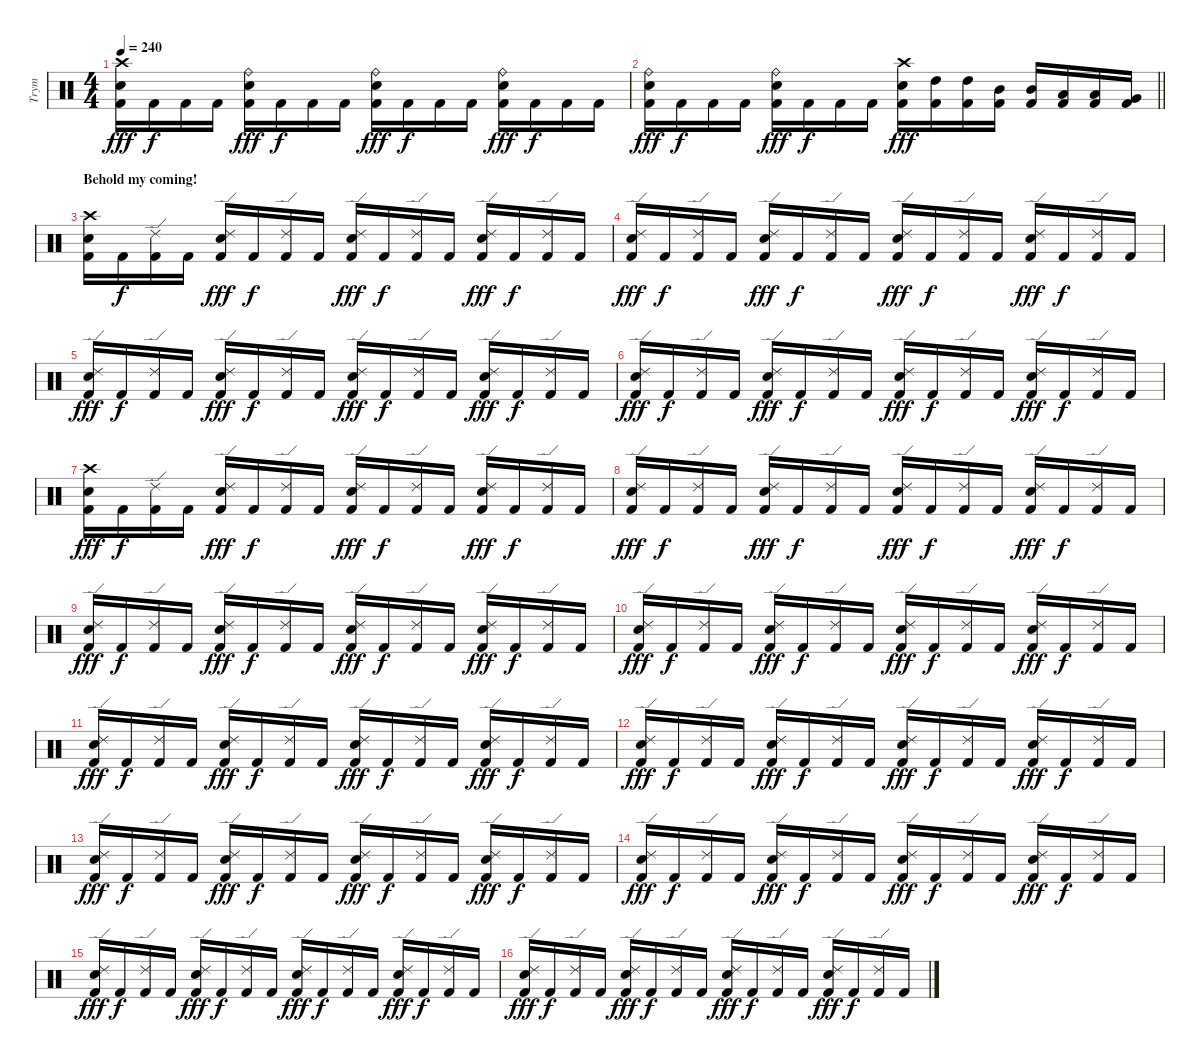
\track ("Trym" "Trym") {instrument percussion}
\staff {score}
\articulation defaults
\ts (4 4)
\tempo 240
\clef neutral
\ks c
("Crash high (hit)" "Electric Snare (hit)" "Kick (hit) 2").16{dy fff} "Kick (hit) 2".16{dy f} "Kick (hit) 2".16 "Kick (hit) 2".16 ("Ride (bell)" "Electric Snare (hit)" "Kick (hit) 2").16{dy fff} "Kick (hit) 2".16{dy f} "Kick (hit) 2".16 "Kick (hit) 2".16 ("Ride (bell)" "Electric Snare (hit)" "Kick (hit) 2").16{dy fff} "Kick (hit) 2".16{dy f} "Kick (hit) 2".16 "Kick (hit) 2".16 ("Ride (bell)" "Electric Snare (hit)" "Kick (hit) 2").16{dy fff} "Kick (hit) 2".16{dy f} "Kick (hit) 2".16 "Kick (hit) 2".16 |
\barLineRight lightlight
("Ride (bell)" "Electric Snare (hit)" "Kick (hit) 2").16{dy fff} "Kick (hit) 2".16{dy f} "Kick (hit) 2".16 "Kick (hit) 2".16 ("Ride (bell)" "Electric Snare (hit)" "Kick (hit) 2").16{dy fff} "Kick (hit) 2".16{dy f} "Kick (hit) 2".16 "Kick (hit) 2".16 ("Crash high (hit)" "Electric Snare (hit)" "Kick (hit) 2").16{dy fff} ("High Tom (hit)" "Kick (hit) 2").16 ("High Tom (hit)" "Kick (hit) 2").16 ("Mid Tom (hit)" "Kick (hit) 2").16 ("Mid Tom (hit)" "Kick (hit) 2").16 ("Low Tom (hit)" "Kick (hit) 2").16 ("Low Tom (hit)" "Kick (hit) 2").16 ("Very Low Tom (hit)" "Kick (hit) 2").16 |
\section ("" "Behold my coming!")
("Crash high (hit)" "Electric Snare (hit)" "Kick (hit) 2").16 "Kick (hit) 2".16{dy f} ("Ride (edge) 2" "Kick (hit) 2").16 "Kick (hit) 2".16 ("Ride (edge) 2" "Electric Snare (hit)" "Kick (hit) 2").16{dy fff} "Kick (hit) 2".16{dy f} ("Ride (edge) 2" "Kick (hit) 2").16 "Kick (hit) 2".16 ("Ride (edge) 2" "Electric Snare (hit)" "Kick (hit) 2").16{dy fff} "Kick (hit) 2".16{dy f} ("Ride (edge) 2" "Kick (hit) 2").16 "Kick (hit) 2".16 ("Ride (edge) 2" "Electric Snare (hit)" "Kick (hit) 2").16{dy fff} "Kick (hit) 2".16{dy f} ("Ride (edge) 2" "Kick (hit) 2").16 "Kick (hit) 2".16 |
("Ride (edge) 2" "Electric Snare (hit)" "Kick (hit) 2").16{dy fff} "Kick (hit) 2".16{dy f} ("Ride (edge) 2" "Kick (hit) 2").16 "Kick (hit) 2".16 ("Ride (edge) 2" "Electric Snare (hit)" "Kick (hit) 2").16{dy fff} "Kick (hit) 2".16{dy f} ("Ride (edge) 2" "Kick (hit) 2").16 "Kick (hit) 2".16 ("Ride (edge) 2" "Electric Snare (hit)" "Kick (hit) 2").16{dy fff} "Kick (hit) 2".16{dy f} ("Ride (edge) 2" "Kick (hit) 2").16 "Kick (hit) 2".16 ("Ride (edge) 2" "Electric Snare (hit)" "Kick (hit) 2").16{dy fff} "Kick (hit) 2".16{dy f} ("Ride (edge) 2" "Kick (hit) 2").16 "Kick (hit) 2".16 |
("Ride (edge) 2" "Electric Snare (hit)" "Kick (hit) 2").16{dy fff} "Kick (hit) 2".16{dy f} ("Ride (edge) 2" "Kick (hit) 2").16 "Kick (hit) 2".16 ("Ride (edge) 2" "Electric Snare (hit)" "Kick (hit) 2").16{dy fff} "Kick (hit) 2".16{dy f} ("Ride (edge) 2" "Kick (hit) 2").16 "Kick (hit) 2".16 ("Ride (edge) 2" "Electric Snare (hit)" "Kick (hit) 2").16{dy fff} "Kick (hit) 2".16{dy f} ("Ride (edge) 2" "Kick (hit) 2").16 "Kick (hit) 2".16 ("Ride (edge) 2" "Electric Snare (hit)" "Kick (hit) 2").16{dy fff} "Kick (hit) 2".16{dy f} ("Ride (edge) 2" "Kick (hit) 2").16 "Kick (hit) 2".16 |
("Ride (edge) 2" "Electric Snare (hit)" "Kick (hit) 2").16{dy fff} "Kick (hit) 2".16{dy f} ("Ride (edge) 2" "Kick (hit) 2").16 "Kick (hit) 2".16 ("Ride (edge) 2" "Electric Snare (hit)" "Kick (hit) 2").16{dy fff} "Kick (hit) 2".16{dy f} ("Ride (edge) 2" "Kick (hit) 2").16 "Kick (hit) 2".16 ("Ride (edge) 2" "Electric Snare (hit)" "Kick (hit) 2").16{dy fff} "Kick (hit) 2".16{dy f} ("Ride (edge) 2" "Kick (hit) 2").16 "Kick (hit) 2".16 ("Ride (edge) 2" "Electric Snare (hit)" "Kick (hit) 2").16{dy fff} "Kick (hit) 2".16{dy f} ("Ride (edge) 2" "Kick (hit) 2").16 "Kick (hit) 2".16 |
("Crash high (hit)" "Electric Snare (hit)" "Kick (hit) 2").16{dy fff} "Kick (hit) 2".16{dy f} ("Ride (edge) 2" "Kick (hit) 2").16 "Kick (hit) 2".16 ("Ride (edge) 2" "Electric Snare (hit)" "Kick (hit) 2").16{dy fff} "Kick (hit) 2".16{dy f} ("Ride (edge) 2" "Kick (hit) 2").16 "Kick (hit) 2".16 ("Ride (edge) 2" "Electric Snare (hit)" "Kick (hit) 2").16{dy fff} "Kick (hit) 2".16{dy f} ("Ride (edge) 2" "Kick (hit) 2").16 "Kick (hit) 2".16 ("Ride (edge) 2" "Electric Snare (hit)" "Kick (hit) 2").16{dy fff} "Kick (hit) 2".16{dy f} ("Ride (edge) 2" "Kick (hit) 2").16 "Kick (hit) 2".16 |
("Ride (edge) 2" "Electric Snare (hit)" "Kick (hit) 2").16{dy fff} "Kick (hit) 2".16{dy f} ("Ride (edge) 2" "Kick (hit) 2").16 "Kick (hit) 2".16 ("Ride (edge) 2" "Electric Snare (hit)" "Kick (hit) 2").16{dy fff} "Kick (hit) 2".16{dy f} ("Ride (edge) 2" "Kick (hit) 2").16 "Kick (hit) 2".16 ("Ride (edge) 2" "Electric Snare (hit)" "Kick (hit) 2").16{dy fff} "Kick (hit) 2".16{dy f} ("Ride (edge) 2" "Kick (hit) 2").16 "Kick (hit) 2".16 ("Ride (edge) 2" "Electric Snare (hit)" "Kick (hit) 2").16{dy fff} "Kick (hit) 2".16{dy f} ("Ride (edge) 2" "Kick (hit) 2").16 "Kick (hit) 2".16 |
("Ride (edge) 2" "Electric Snare (hit)" "Kick (hit) 2").16{dy fff} "Kick (hit) 2".16{dy f} ("Ride (edge) 2" "Kick (hit) 2").16 "Kick (hit) 2".16 ("Ride (edge) 2" "Electric Snare (hit)" "Kick (hit) 2").16{dy fff} "Kick (hit) 2".16{dy f} ("Ride (edge) 2" "Kick (hit) 2").16 "Kick (hit) 2".16 ("Ride (edge) 2" "Electric Snare (hit)" "Kick (hit) 2").16{dy fff} "Kick (hit) 2".16{dy f} ("Ride (edge) 2" "Kick (hit) 2").16 "Kick (hit) 2".16 ("Ride (edge) 2" "Electric Snare (hit)" "Kick (hit) 2").16{dy fff} "Kick (hit) 2".16{dy f} ("Ride (edge) 2" "Kick (hit) 2").16 "Kick (hit) 2".16 |
("Ride (edge) 2" "Electric Snare (hit)" "Kick (hit) 2").16{dy fff} "Kick (hit) 2".16{dy f} ("Ride (edge) 2" "Kick (hit) 2").16 "Kick (hit) 2".16 ("Ride (edge) 2" "Electric Snare (hit)" "Kick (hit) 2").16{dy fff} "Kick (hit) 2".16{dy f} ("Ride (edge) 2" "Kick (hit) 2").16 "Kick (hit) 2".16 ("Ride (edge) 2" "Electric Snare (hit)" "Kick (hit) 2").16{dy fff} "Kick (hit) 2".16{dy f} ("Ride (edge) 2" "Kick (hit) 2").16 "Kick (hit) 2".16 ("Ride (edge) 2" "Electric Snare (hit)" "Kick (hit) 2").16{dy fff} "Kick (hit) 2".16{dy f} ("Ride (edge) 2" "Kick (hit) 2").16 "Kick (hit) 2".16 |
("Ride (edge) 2" "Electric Snare (hit)" "Kick (hit) 2").16{dy fff} "Kick (hit) 2".16{dy f} ("Ride (edge) 2" "Kick (hit) 2").16 "Kick (hit) 2".16 ("Ride (edge) 2" "Electric Snare (hit)" "Kick (hit) 2").16{dy fff} "Kick (hit) 2".16{dy f} ("Ride (edge) 2" "Kick (hit) 2").16 "Kick (hit) 2".16 ("Ride (edge) 2" "Electric Snare (hit)" "Kick (hit) 2").16{dy fff} "Kick (hit) 2".16{dy f} ("Ride (edge) 2" "Kick (hit) 2").16 "Kick (hit) 2".16 ("Ride (edge) 2" "Electric Snare (hit)" "Kick (hit) 2").16{dy fff} "Kick (hit) 2".16{dy f} ("Ride (edge) 2" "Kick (hit) 2").16 "Kick (hit) 2".16 |
("Ride (edge) 2" "Electric Snare (hit)" "Kick (hit) 2").16{dy fff} "Kick (hit) 2".16{dy f} ("Ride (edge) 2" "Kick (hit) 2").16 "Kick (hit) 2".16 ("Ride (edge) 2" "Electric Snare (hit)" "Kick (hit) 2").16{dy fff} "Kick (hit) 2".16{dy f} ("Ride (edge) 2" "Kick (hit) 2").16 "Kick (hit) 2".16 ("Ride (edge) 2" "Electric Snare (hit)" "Kick (hit) 2").16{dy fff} "Kick (hit) 2".16{dy f} ("Ride (edge) 2" "Kick (hit) 2").16 "Kick (hit) 2".16 ("Ride (edge) 2" "Electric Snare (hit)" "Kick (hit) 2").16{dy fff} "Kick (hit) 2".16{dy f} ("Ride (edge) 2" "Kick (hit) 2").16 "Kick (hit) 2".16 |
("Ride (edge) 2" "Electric Snare (hit)" "Kick (hit) 2").16{dy fff} "Kick (hit) 2".16{dy f} ("Ride (edge) 2" "Kick (hit) 2").16 "Kick (hit) 2".16 ("Ride (edge) 2" "Electric Snare (hit)" "Kick (hit) 2").16{dy fff} "Kick (hit) 2".16{dy f} ("Ride (edge) 2" "Kick (hit) 2").16 "Kick (hit) 2".16 ("Ride (edge) 2" "Electric Snare (hit)" "Kick (hit) 2").16{dy fff} "Kick (hit) 2".16{dy f} ("Ride (edge) 2" "Kick (hit) 2").16 "Kick (hit) 2".16 ("Ride (edge) 2" "Electric Snare (hit)" "Kick (hit) 2").16{dy fff} "Kick (hit) 2".16{dy f} ("Ride (edge) 2" "Kick (hit) 2").16 "Kick (hit) 2".16 |
("Ride (edge) 2" "Electric Snare (hit)" "Kick (hit) 2").16{dy fff} "Kick (hit) 2".16{dy f} ("Ride (edge) 2" "Kick (hit) 2").16 "Kick (hit) 2".16 ("Ride (edge) 2" "Electric Snare (hit)" "Kick (hit) 2").16{dy fff} "Kick (hit) 2".16{dy f} ("Ride (edge) 2" "Kick (hit) 2").16 "Kick (hit) 2".16 ("Ride (edge) 2" "Electric Snare (hit)" "Kick (hit) 2").16{dy fff} "Kick (hit) 2".16{dy f} ("Ride (edge) 2" "Kick (hit) 2").16 "Kick (hit) 2".16 ("Ride (edge) 2" "Electric Snare (hit)" "Kick (hit) 2").16{dy fff} "Kick (hit) 2".16{dy f} ("Ride (edge) 2" "Kick (hit) 2").16 "Kick (hit) 2".16 |
("Ride (edge) 2" "Electric Snare (hit)" "Kick (hit) 2").16{dy fff} "Kick (hit) 2".16{dy f} ("Ride (edge) 2" "Kick (hit) 2").16 "Kick (hit) 2".16 ("Ride (edge) 2" "Electric Snare (hit)" "Kick (hit) 2").16{dy fff} "Kick (hit) 2".16{dy f} ("Ride (edge) 2" "Kick (hit) 2").16 "Kick (hit) 2".16 ("Ride (edge) 2" "Electric Snare (hit)" "Kick (hit) 2").16{dy fff} "Kick (hit) 2".16{dy f} ("Ride (edge) 2" "Kick (hit) 2").16 "Kick (hit) 2".16 ("Ride (edge) 2" "Electric Snare (hit)" "Kick (hit) 2").16{dy fff} "Kick (hit) 2".16{dy f} ("Ride (edge) 2" "Kick (hit) 2").16 "Kick (hit) 2".16 |
("Ride (edge) 2" "Electric Snare (hit)" "Kick (hit) 2").16{dy fff} "Kick (hit) 2".16{dy f} ("Ride (edge) 2" "Kick (hit) 2").16 "Kick (hit) 2".16 ("Ride (edge) 2" "Electric Snare (hit)" "Kick (hit) 2").16{dy fff} "Kick (hit) 2".16{dy f} ("Ride (edge) 2" "Kick (hit) 2").16 "Kick (hit) 2".16 ("Ride (edge) 2" "Electric Snare (hit)" "Kick (hit) 2").16{dy fff} "Kick (hit) 2".16{dy f} ("Ride (edge) 2" "Kick (hit) 2").16 "Kick (hit) 2".16 ("Ride (edge) 2" "Electric Snare (hit)" "Kick (hit) 2").16{dy fff} "Kick (hit) 2".16{dy f} ("Ride (edge) 2" "Kick (hit) 2").16 "Kick (hit) 2".16
